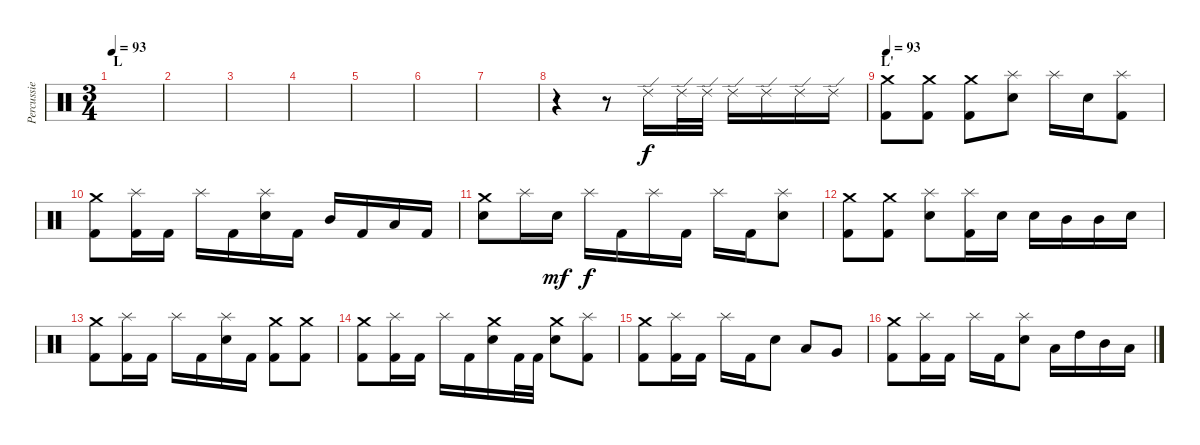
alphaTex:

\track ("Percussie" "Percussie") {instrument percussion}
\staff {score}
\articulation defaults
\ts (3 4)
\section ("" "L")
\tempo 93
\clef neutral
\ks c
|
|
|
|
|
|
|
r.4 r.8 "Ride (edge) 2".16 "Ride (edge) 2".32 "Ride (edge) 2".32 "Ride (edge) 2".16 "Ride (edge) 2".16 "Ride (edge) 2".16 "Ride (edge) 2".16 |
\section ("" "L'")
\tempo 93
("Crash medium (hit)" "Kick (hit) 2").8 ("Crash medium (hit)" "Kick (hit) 2").8 ("Crash medium (hit)" "Kick (hit) 2").8 ("Splash (hit)" "Electric Snare (hit)").8 "Splash (hit)".16 "Electric Snare (hit)".16 ("Splash (hit)" "Kick (hit) 2").8 |
("Crash medium (hit)" "Kick (hit) 2").8 ("Splash (hit)" "Kick (hit) 2").16 "Kick (hit) 2".16 "Splash (hit)".16 "Kick (hit) 2".16 ("Splash (hit)" "Electric Snare (hit)").16 "Kick (hit) 2".16 "Mid Tom (hit)".16 "Kick (hit) 2".16 "Low Tom (hit)".16 "Kick (hit) 2".16 |
("Crash medium (hit)" "Electric Snare (hit)").8 "Splash (hit)".16 "Electric Snare (hit)".16{dy mf} "Splash (hit)".16{dy f} "Kick (hit) 2".16 "Splash (hit)".16 "Kick (hit) 2".16 "Splash (hit)".16 "Kick (hit) 2".16 ("Splash (hit)" "Electric Snare (hit)").8 |
("Crash medium (hit)" "Kick (hit) 2").8 ("Crash medium (hit)" "Kick (hit) 2").8 ("Splash (hit)" "Electric Snare (hit)").8 ("Splash (hit)" "Kick (hit) 2").16 "Electric Snare (hit)".16 "Electric Snare (hit)".16 "Mid Tom (hit)".16 "Mid Tom (hit)".16 "Electric Snare (hit)".16 |
("Crash medium (hit)" "Kick (hit) 2").8 ("Splash (hit)" "Kick (hit) 2").16 "Kick (hit) 2".16 "Splash (hit)".16 "Kick (hit) 2".16 ("Splash (hit)" "Electric Snare (hit)").16 "Kick (hit) 2".16 ("Crash medium (hit)" "Kick (hit) 2").8 ("Crash medium (hit)" "Kick (hit) 2").8 |
("Crash medium (hit)" "Kick (hit) 2").8 ("Splash (hit)" "Kick (hit) 2").16 "Kick (hit) 2".16 "Splash (hit)".16 "Kick (hit) 2".16 ("Crash medium (hit)" "Electric Snare (hit)").16 "Kick (hit) 2".32 "Kick (hit) 2".32 ("Crash medium (hit)" "Electric Snare (hit)").8 ("Splash (hit)" "Kick (hit) 2").8 |
("Crash medium (hit)" "Kick (hit) 2").8 ("Splash (hit)" "Kick (hit) 2").16 "Kick (hit) 2".16 "Splash (hit)".16 "Kick (hit) 2".16 "Electric Snare (hit)".8 "Low Tom (hit)".8 "Very Low Tom (hit)".8 |
("Crash medium (hit)" "Kick (hit) 2").8 ("Splash (hit)" "Kick (hit) 2").16 "Kick (hit) 2".16 "Splash (hit)".16 "Kick (hit) 2".16 ("Splash (hit)" "Electric Snare (hit)").8 "Low Tom (hit)".16 "High Tom (hit)".16 "Mid Tom (hit)".16 "Low Tom (hit)".16
